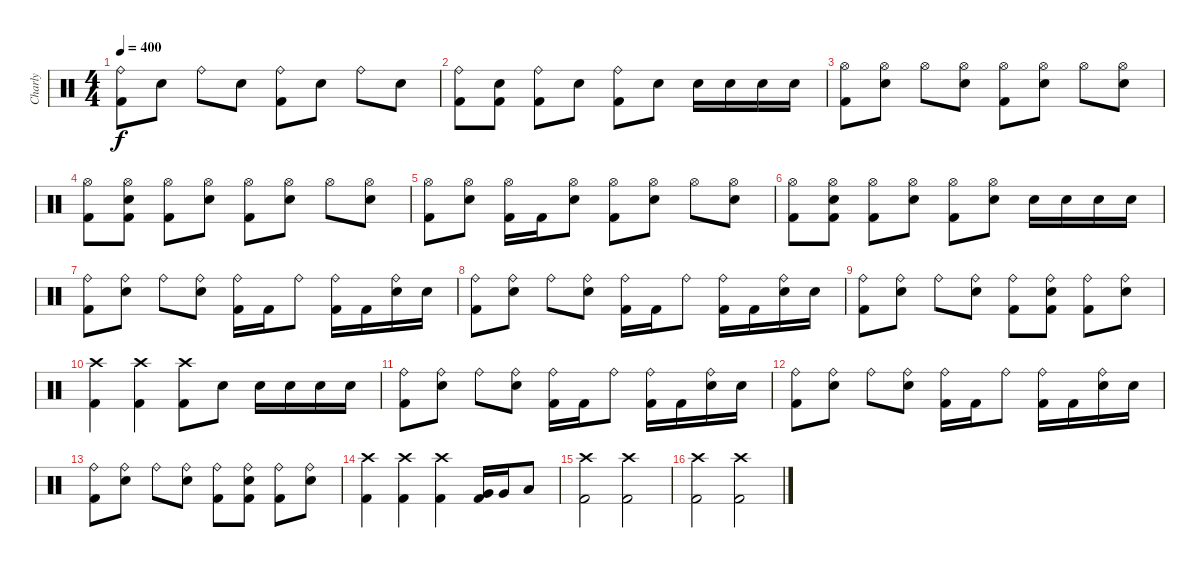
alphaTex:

\track ("Charly" "Charly") {instrument percussion}
\staff {score}
\articulation defaults
\ts (4 4)
\tempo 400
\clef neutral
\ks c
("Ride (bell)" "Kick (hit) 2").8{dy f} "Electric Snare (hit)".8 "Ride (bell)".8 "Electric Snare (hit)".8 ("Ride (bell)" "Kick (hit) 2").8 "Electric Snare (hit)".8 "Ride (bell)".8 "Electric Snare (hit)".8 |
("Ride (bell)" "Kick (hit) 2").8 ("Electric Snare (hit)" "Kick (hit) 2").8 ("Ride (bell)" "Kick (hit) 2").8 "Electric Snare (hit)".8 ("Ride (bell)" "Kick (hit) 2").8 "Electric Snare (hit)".8 "Electric Snare (hit)".16 "Electric Snare (hit)".16 "Electric Snare (hit)".16 "Electric Snare (hit)".16 |
("Hi-Hat (open)" "Kick (hit) 2").8 ("Hi-Hat (open)" "Electric Snare (hit)").8 "Hi-Hat (open)".8 ("Hi-Hat (open)" "Electric Snare (hit)").8 ("Hi-Hat (open)" "Kick (hit) 2").8 ("Hi-Hat (open)" "Electric Snare (hit)").8 "Hi-Hat (open)".8 ("Hi-Hat (open)" "Electric Snare (hit)").8 |
("Hi-Hat (open)" "Kick (hit) 2").8 ("Hi-Hat (open)" "Electric Snare (hit)" "Kick (hit) 2").8 ("Hi-Hat (open)" "Kick (hit) 2").8 ("Hi-Hat (open)" "Electric Snare (hit)").8 ("Hi-Hat (open)" "Kick (hit) 2").8 ("Hi-Hat (open)" "Electric Snare (hit)").8 "Hi-Hat (open)".8 ("Hi-Hat (open)" "Electric Snare (hit)").8 |
("Hi-Hat (open)" "Kick (hit) 2").8 ("Hi-Hat (open)" "Electric Snare (hit)").8 ("Hi-Hat (open)" "Kick (hit) 2").16 "Kick (hit) 2".16 ("Hi-Hat (open)" "Electric Snare (hit)").8 ("Hi-Hat (open)" "Kick (hit) 2").8 ("Hi-Hat (open)" "Electric Snare (hit)").8 "Hi-Hat (open)".8 ("Hi-Hat (open)" "Electric Snare (hit)").8 |
("Hi-Hat (open)" "Kick (hit) 2").8 ("Hi-Hat (open)" "Electric Snare (hit)" "Kick (hit) 2").8 ("Hi-Hat (open)" "Kick (hit) 2").8 ("Hi-Hat (open)" "Electric Snare (hit)").8 ("Hi-Hat (open)" "Kick (hit) 2").8 ("Hi-Hat (open)" "Electric Snare (hit)").8 "Electric Snare (hit)".16 "Electric Snare (hit)".16 "Electric Snare (hit)".16 "Electric Snare (hit)".16 |
("Ride (bell)" "Kick (hit) 2").8 ("Ride (bell)" "Electric Snare (hit)").8 "Ride (bell)".8 ("Ride (bell)" "Electric Snare (hit)").8 ("Ride (bell)" "Kick (hit) 2").16 "Kick (hit) 2".16 "Ride (bell)".8 ("Ride (bell)" "Kick (hit) 2").16 "Kick (hit) 2".16 ("Ride (bell)" "Electric Snare (hit)").16 "Electric Snare (hit)".16 |
("Ride (bell)" "Kick (hit) 2").8 ("Ride (bell)" "Electric Snare (hit)").8 "Ride (bell)".8 ("Ride (bell)" "Electric Snare (hit)").8 ("Ride (bell)" "Kick (hit) 2").16 "Kick (hit) 2".16 "Ride (bell)".8 ("Ride (bell)" "Kick (hit) 2").16 "Kick (hit) 2".16 ("Ride (bell)" "Electric Snare (hit)").16 "Electric Snare (hit)".16 |
("Ride (bell)" "Kick (hit) 2").8 ("Ride (bell)" "Electric Snare (hit)").8 "Ride (bell)".8 ("Ride (bell)" "Electric Snare (hit)").8 ("Ride (bell)" "Kick (hit) 2").8 ("Ride (bell)" "Electric Snare (hit)" "Kick (hit) 2").8 ("Ride (bell)" "Kick (hit) 2").8 ("Ride (bell)" "Electric Snare (hit)").8 |
("Crash high (hit)" "Kick (hit) 2").4 ("Crash high (hit)" "Kick (hit) 2").4 ("Crash high (hit)" "Kick (hit) 2").8 "Electric Snare (hit)".8 "Electric Snare (hit)".16 "Electric Snare (hit)".16 "Electric Snare (hit)".16 "Electric Snare (hit)".16 |
("Ride (bell)" "Kick (hit) 2").8 ("Ride (bell)" "Electric Snare (hit)").8 "Ride (bell)".8 ("Ride (bell)" "Electric Snare (hit)").8 ("Ride (bell)" "Kick (hit) 2").16 "Kick (hit) 2".16 "Ride (bell)".8 ("Ride (bell)" "Kick (hit) 2").16 "Kick (hit) 2".16 ("Ride (bell)" "Electric Snare (hit)").16 "Electric Snare (hit)".16 |
("Ride (bell)" "Kick (hit) 2").8 ("Ride (bell)" "Electric Snare (hit)").8 "Ride (bell)".8 ("Ride (bell)" "Electric Snare (hit)").8 ("Ride (bell)" "Kick (hit) 2").16 "Kick (hit) 2".16 "Ride (bell)".8 ("Ride (bell)" "Kick (hit) 2").16 "Kick (hit) 2".16 ("Ride (bell)" "Electric Snare (hit)").16 "Electric Snare (hit)".16 |
("Ride (bell)" "Kick (hit) 2").8 ("Ride (bell)" "Electric Snare (hit)").8 "Ride (bell)".8 ("Ride (bell)" "Electric Snare (hit)").8 ("Ride (bell)" "Kick (hit) 2").8 ("Ride (bell)" "Electric Snare (hit)" "Kick (hit) 2").8 ("Ride (bell)" "Kick (hit) 2").8 ("Ride (bell)" "Electric Snare (hit)").8 |
("Crash high (hit)" "Kick (hit) 2").4 ("Crash high (hit)" "Kick (hit) 2").4 ("Crash high (hit)" "Kick (hit) 2").4 ("Very Low Tom (hit)" "Kick (hit) 2").16 "Very Low Tom (hit)".16 "Low Tom (hit)".8 |
("Crash high (hit)" "Kick (hit) 2").2 ("Crash high (hit)" "Kick (hit) 2").2 |
("Crash high (hit)" "Kick (hit) 2").2 ("Crash high (hit)" "Kick (hit) 2").2
